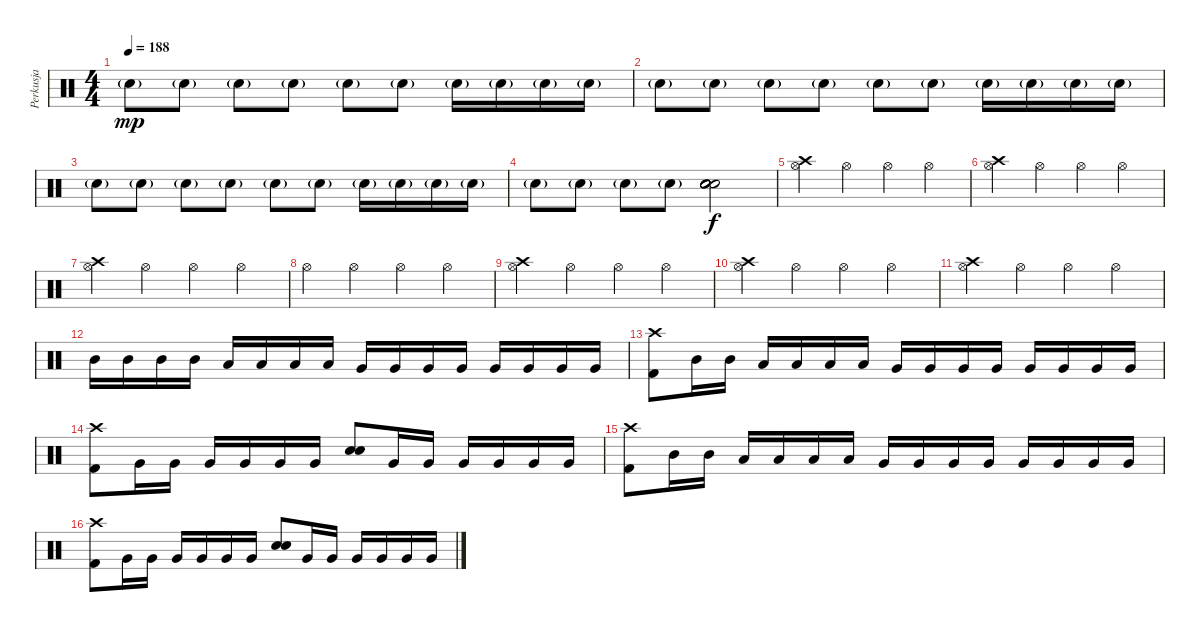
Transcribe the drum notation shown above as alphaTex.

\track ("Perkusja" "Perkusja") {instrument percussion}
\staff {score}
\articulation defaults
\ts (4 4)
\tempo 188
\clef neutral
\ks c "Electric Snare (hit)"{g}.8{dy mp} "Electric Snare (hit)"{g}.8 "Electric Snare (hit)"{g}.8 "Electric Snare (hit)"{g}.8 "Electric Snare (hit)"{g}.8 "Electric Snare (hit)"{g}.8 "Electric Snare (hit)"{g}.16 "Electric Snare (hit)"{g}.16 "Electric Snare (hit)"{g}.16 "Electric Snare (hit)"{g}.16
|
"Electric Snare (hit)"{g}.8 "Electric Snare (hit)"{g}.8 "Electric Snare (hit)"{g}.8 "Electric Snare (hit)"{g}.8 "Electric Snare (hit)"{g}.8 "Electric Snare (hit)"{g}.8 "Electric Snare (hit)"{g}.16 "Electric Snare (hit)"{g}.16 "Electric Snare (hit)"{g}.16 "Electric Snare (hit)"{g}.16 |
"Electric Snare (hit)"{g}.8 "Electric Snare (hit)"{g}.8 "Electric Snare (hit)"{g}.8 "Electric Snare (hit)"{g}.8 "Electric Snare (hit)"{g}.8 "Electric Snare (hit)"{g}.8 "Electric Snare (hit)"{g}.16 "Electric Snare (hit)"{g}.16 "Electric Snare (hit)"{g}.16 "Electric Snare (hit)"{g}.16 |
"Electric Snare (hit)"{g}.8 "Electric Snare (hit)"{g}.8 "Electric Snare (hit)"{g}.8 "Electric Snare (hit)"{g}.8 ("Electric Snare (hit)" "Electric Snare (hit)" "Electric Snare (hit)" "Electric Snare (hit)" "Electric Snare (hit)" "Electric Snare (hit)").2{dy f} |
("Crash high (hit)" "Hi-Hat (open)").4 "Hi-Hat (open)".4 "Hi-Hat (open)".4 "Hi-Hat (open)".4 |
("Crash high (hit)" "Hi-Hat (open)").4 "Hi-Hat (open)".4 "Hi-Hat (open)".4 "Hi-Hat (open)".4 |
("Crash high (hit)" "Hi-Hat (open)").4 "Hi-Hat (open)".4 "Hi-Hat (open)".4 "Hi-Hat (open)".4 |
"Hi-Hat (open)".4 "Hi-Hat (open)".4 "Hi-Hat (open)".4 "Hi-Hat (open)".4 |
("Crash high (hit)" "Hi-Hat (open)").4 "Hi-Hat (open)".4 "Hi-Hat (open)".4 "Hi-Hat (open)".4 |
("Crash high (hit)" "Hi-Hat (open)").4 "Hi-Hat (open)".4 "Hi-Hat (open)".4 "Hi-Hat (open)".4 |
("Crash high (hit)" "Hi-Hat (open)").4 "Hi-Hat (open)".4 "Hi-Hat (open)".4 "Hi-Hat (open)".4 |
"Mid Tom (hit)".16 "Mid Tom (hit)".16 "Mid Tom (hit)".16 "Mid Tom (hit)".16 "Low Tom (hit)".16 "Low Tom (hit)".16 "Low Tom (hit)".16 "Low Tom (hit)".16 "Very Low Tom (hit)".16 "Very Low Tom (hit)".16 "Very Low Tom (hit)".16 "Very Low Tom (hit)".16 "Very Low Tom (hit)".16 "Very Low Tom (hit)".16 "Very Low Tom (hit)".16 "Very Low Tom (hit)".16 |
("Crash high (hit)" "Kick (hit) 2").8 "Mid Tom (hit)".16 "Mid Tom (hit)".16 "Low Tom (hit)".16 "Low Tom (hit)".16 "Low Tom (hit)".16 "Low Tom (hit)".16 "Very Low Tom (hit)".16 "Very Low Tom (hit)".16 "Very Low Tom (hit)".16 "Very Low Tom (hit)".16 "Very Low Tom (hit)".16 "Very Low Tom (hit)".16 "Very Low Tom (hit)".16 "Very Low Tom (hit)".16 |
("Crash high (hit)" "Kick (hit) 2").8 "Very Low Tom (hit)".16 "Very Low Tom (hit)".16 "Very Low Tom (hit)".16 "Very Low Tom (hit)".16 "Very Low Tom (hit)".16 "Very Low Tom (hit)".16 ("Electric Snare (hit)" "Electric Snare (hit)").8 "Very Low Tom (hit)".16 "Very Low Tom (hit)".16 "Very Low Tom (hit)".16 "Very Low Tom (hit)".16 "Very Low Tom (hit)".16 "Very Low Tom (hit)".16 |
("Crash high (hit)" "Kick (hit) 2").8 "Mid Tom (hit)".16 "Mid Tom (hit)".16 "Low Tom (hit)".16 "Low Tom (hit)".16 "Low Tom (hit)".16 "Low Tom (hit)".16 "Very Low Tom (hit)".16 "Very Low Tom (hit)".16 "Very Low Tom (hit)".16 "Very Low Tom (hit)".16 "Very Low Tom (hit)".16 "Very Low Tom (hit)".16 "Very Low Tom (hit)".16 "Very Low Tom (hit)".16 |
("Crash high (hit)" "Kick (hit) 2").8 "Very Low Tom (hit)".16 "Very Low Tom (hit)".16 "Very Low Tom (hit)".16 "Very Low Tom (hit)".16 "Very Low Tom (hit)".16 "Very Low Tom (hit)".16 ("Electric Snare (hit)" "Electric Snare (hit)").8 "Very Low Tom (hit)".16 "Very Low Tom (hit)".16 "Very Low Tom (hit)".16 "Very Low Tom (hit)".16 "Very Low Tom (hit)".16 "Very Low Tom (hit)".16
